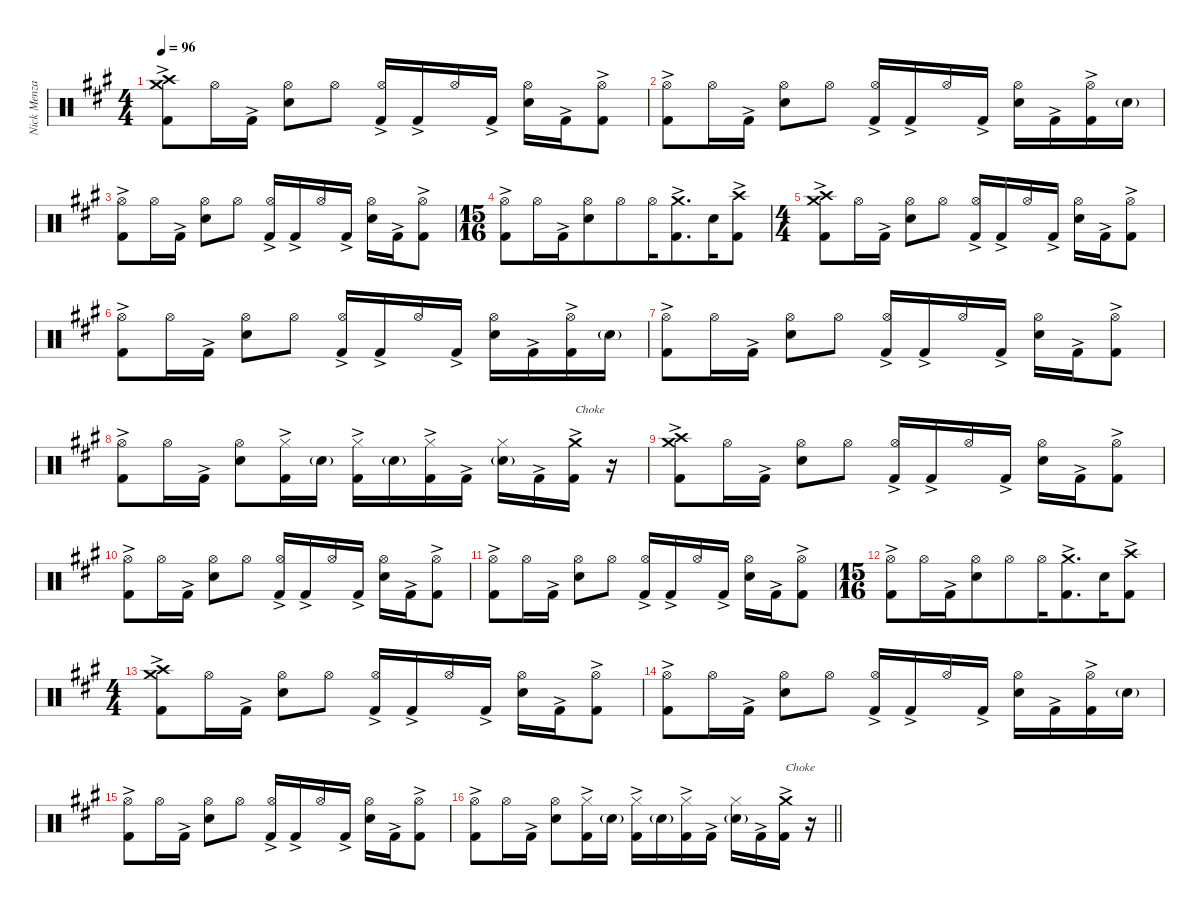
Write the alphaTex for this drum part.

\defaultSystemsLayout 4
\hideDynamics
\bracketExtendMode nobrackets
\firstSystemTrackNameMode fullname
\otherSystemsTrackNameOrientation horizontal
\track ("Nick Menza" "drm.") {instrument percussion}
\staff {score}
\articulation defaults
\ts (4 4)
\tempo 96
\clef neutral
\ks f#minor
("Crash high (hit)"{acc forcenatural} "Crash medium (hit)"{acc forcenatural} "Kick (hit) 2"{ac acc forcenatural}).8{dy f beam Down} "Hi-Hat (open)"{acc forcenatural}.16{beam Down} "Kick (hit) 2"{ac acc forcenatural}.16{dy ff beam Down} ("Hi-Hat (open)"{acc forcenatural} "Snare (hit) 2"{acc forcenatural}).8{dy f beam Down} "Hi-Hat (open)"{acc forcenatural}.8{beam Down} ("Hi-Hat (open)"{acc forcenatural} "Kick (hit) 2"{ac acc forcenatural}).16{beam Up} "Kick (hit) 2"{ac acc forcenatural}.16{dy ff beam Up} "Hi-Hat (open)"{acc forcenatural}.16{dy f beam Up} "Kick (hit) 2"{ac acc forcenatural}.16{dy ff beam Up} ("Hi-Hat (open)"{acc forcenatural} "Snare (hit) 2"{acc forcenatural}).16{dy f beam Down} "Kick (hit) 2"{ac acc forcenatural}.16{dy ff beam Down} ("Hi-Hat (open)"{acc forcenatural} "Kick (hit) 2"{ac acc forcenatural}).8{dy f beam Down} |
("Hi-Hat (open)"{acc forcenatural} "Kick (hit) 2"{ac acc forcenatural}).8{beam Down} "Hi-Hat (open)"{acc forcenatural}.16{beam Down} "Kick (hit) 2"{ac acc forcenatural}.16{dy ff beam Down} ("Hi-Hat (open)"{acc forcenatural} "Snare (hit) 2"{acc forcenatural}).8{dy f beam Down} "Hi-Hat (open)"{acc forcenatural}.8{beam Down} ("Hi-Hat (open)"{acc forcenatural} "Kick (hit) 2"{ac acc forcenatural}).16{beam Up} "Kick (hit) 2"{ac acc forcenatural}.16{dy ff beam Up} "Hi-Hat (open)"{acc forcenatural}.16{dy f beam Up} "Kick (hit) 2"{ac acc forcenatural}.16{dy ff beam Up} ("Hi-Hat (open)"{acc forcenatural} "Snare (hit) 2"{acc forcenatural}).16{dy f beam Down} "Kick (hit) 2"{ac acc forcenatural}.16{dy ff beam Down} ("Hi-Hat (open)"{acc forcenatural} "Kick (hit) 2"{ac acc forcenatural}).16{dy f beam Down} "Snare (hit) 2"{g acc forcenatural}.16{dy mf beam Down} |
("Hi-Hat (open)"{acc forcenatural} "Kick (hit) 2"{ac acc forcenatural}).8{dy f beam Down} "Hi-Hat (open)"{acc forcenatural}.16{beam Down} "Kick (hit) 2"{ac acc forcenatural}.16{dy ff beam Down} ("Hi-Hat (open)"{acc forcenatural} "Snare (hit) 2"{acc forcenatural}).8{dy f beam Down} "Hi-Hat (open)"{acc forcenatural}.8{beam Down} ("Hi-Hat (open)"{acc forcenatural} "Kick (hit) 2"{ac acc forcenatural}).16{beam Up} "Kick (hit) 2"{ac acc forcenatural}.16{dy ff beam Up} "Hi-Hat (open)"{acc forcenatural}.16{dy f beam Up} "Kick (hit) 2"{ac acc forcenatural}.16{dy ff beam Up} ("Hi-Hat (open)"{acc forcenatural} "Snare (hit) 2"{acc forcenatural}).16{dy f beam Down} "Kick (hit) 2"{ac acc forcenatural}.16{dy ff beam Down} ("Hi-Hat (open)"{acc forcenatural} "Kick (hit) 2"{ac acc forcenatural}).8{dy f beam Down} |
\ts (15 16)
\beaming (8 7)
("Hi-Hat (open)"{acc forcenatural} "Kick (hit) 2"{ac acc forcenatural}).8{beam Down} "Hi-Hat (open)"{acc forcenatural}.16{beam Down} "Kick (hit) 2"{ac acc forcenatural}.16{dy ff beam Down} ("Hi-Hat (open)"{acc forcenatural} "Snare (hit) 2"{acc forcenatural}).8{dy f beam Down} "Hi-Hat (open)"{acc forcenatural}.8{beam Down} "Hi-Hat (open)"{acc forcenatural}.16{beam Down} ("Crash medium (hit)"{acc forcenatural} "Kick (hit) 2"{ac acc forcenatural}).8{d beam Down} "Snare (hit) 2"{acc forcenatural}.16{beam Down} ("Crash high (hit)"{acc forcenatural} "Kick (hit) 2"{ac acc forcenatural}).8{beam Down} |
\ts (4 4)
\beaming (8 2 2 2 2)
("Crash high (hit)"{acc forcenatural} "Crash medium (hit)"{acc forcenatural} "Kick (hit) 2"{ac acc forcenatural}).8{beam Down} "Hi-Hat (open)"{acc forcenatural}.16{beam Down} "Kick (hit) 2"{ac acc forcenatural}.16{dy ff beam Down} ("Hi-Hat (open)"{acc forcenatural} "Snare (hit) 2"{acc forcenatural}).8{dy f beam Down} "Hi-Hat (open)"{acc forcenatural}.8{beam Down} ("Hi-Hat (open)"{acc forcenatural} "Kick (hit) 2"{ac acc forcenatural}).16{beam Up} "Kick (hit) 2"{ac acc forcenatural}.16{dy ff beam Up} "Hi-Hat (open)"{acc forcenatural}.16{dy f beam Up} "Kick (hit) 2"{ac acc forcenatural}.16{dy ff beam Up} ("Hi-Hat (open)"{acc forcenatural} "Snare (hit) 2"{acc forcenatural}).16{dy f beam Down} "Kick (hit) 2"{ac acc forcenatural}.16{dy ff beam Down} ("Hi-Hat (open)"{acc forcenatural} "Kick (hit) 2"{ac acc forcenatural}).8{dy f beam Down} |
("Hi-Hat (open)"{acc forcenatural} "Kick (hit) 2"{ac acc forcenatural}).8{beam Down} "Hi-Hat (open)"{acc forcenatural}.16{beam Down} "Kick (hit) 2"{ac acc forcenatural}.16{dy ff beam Down} ("Hi-Hat (open)"{acc forcenatural} "Snare (hit) 2"{acc forcenatural}).8{dy f beam Down} "Hi-Hat (open)"{acc forcenatural}.8{beam Down} ("Hi-Hat (open)"{acc forcenatural} "Kick (hit) 2"{ac acc forcenatural}).16{beam Up} "Kick (hit) 2"{ac acc forcenatural}.16{dy ff beam Up} "Hi-Hat (open)"{acc forcenatural}.16{dy f beam Up} "Kick (hit) 2"{ac acc forcenatural}.16{dy ff beam Up} ("Hi-Hat (open)"{acc forcenatural} "Snare (hit) 2"{acc forcenatural}).16{dy f beam Down} "Kick (hit) 2"{ac acc forcenatural}.16{dy ff beam Down} ("Hi-Hat (open)"{acc forcenatural} "Kick (hit) 2"{ac acc forcenatural}).16{dy f beam Down} "Snare (hit) 2"{g acc forcenatural}.16{dy mf beam Down} |
("Hi-Hat (open)"{acc forcenatural} "Kick (hit) 2"{ac acc forcenatural}).8{dy f beam Down} "Hi-Hat (open)"{acc forcenatural}.16{beam Down} "Kick (hit) 2"{ac acc forcenatural}.16{dy ff beam Down} ("Hi-Hat (open)"{acc forcenatural} "Snare (hit) 2"{acc forcenatural}).8{dy f beam Down} "Hi-Hat (open)"{acc forcenatural}.8{beam Down} ("Hi-Hat (open)"{acc forcenatural} "Kick (hit) 2"{ac acc forcenatural}).16{beam Up} "Kick (hit) 2"{ac acc forcenatural}.16{dy ff beam Up} "Hi-Hat (open)"{acc forcenatural}.16{dy f beam Up} "Kick (hit) 2"{ac acc forcenatural}.16{dy ff beam Up} ("Hi-Hat (open)"{acc forcenatural} "Snare (hit) 2"{acc forcenatural}).16{dy f beam Down} "Kick (hit) 2"{ac acc forcenatural}.16{dy ff beam Down} ("Hi-Hat (open)"{acc forcenatural} "Kick (hit) 2"{ac acc forcenatural}).8{dy f beam Down} |
("Hi-Hat (open)"{acc forcenatural} "Kick (hit) 2"{ac acc forcenatural}).8{beam Down} "Hi-Hat (open)"{acc forcenatural}.16{beam Down} "Kick (hit) 2"{ac acc forcenatural}.16{dy ff beam Down} ("Hi-Hat (open)"{acc forcenatural} "Snare (hit) 2"{acc forcenatural}).8{dy f beam Down} ("Hi-Hat (closed)"{acc forcenatural} "Kick (hit) 2"{ac acc forcenatural}).16{beam Down} "Snare (hit) 2"{g acc forcenatural}.16{dy mf beam Down} ("Hi-Hat (closed)"{acc forcenatural} "Kick (hit) 2"{ac acc forcenatural}).16{dy f beam Down} "Snare (hit) 2"{g acc forcenatural}.16{dy mf beam Down} ("Hi-Hat (closed)"{acc forcenatural} "Kick (hit) 2"{ac acc forcenatural}).16{dy f beam Down} "Kick (hit) 2"{ac acc forcenatural}.16{dy ff beam Down} ("Hi-Hat (closed)"{acc forcenatural} "Snare (hit) 2"{g acc forcenatural}).16{dy f beam Down} "Kick (hit) 2"{ac acc forcenatural}.16{dy ff beam Down} ("Crash medium (hit)"{acc forcenatural} "Kick (hit) 2"{ac acc forcenatural}).16{txt "Choke" dy f beam Down} r.16{beam Down} |
("Crash high (hit)"{acc forcenatural} "Crash medium (hit)"{acc forcenatural} "Kick (hit) 2"{ac acc forcenatural}).8{beam Down} "Hi-Hat (open)"{acc forcenatural}.16{beam Down} "Kick (hit) 2"{ac acc forcenatural}.16{dy ff beam Down} ("Hi-Hat (open)"{acc forcenatural} "Snare (hit) 2"{acc forcenatural}).8{dy f beam Down} "Hi-Hat (open)"{acc forcenatural}.8{beam Down} ("Hi-Hat (open)"{acc forcenatural} "Kick (hit) 2"{ac acc forcenatural}).16{beam Up} "Kick (hit) 2"{ac acc forcenatural}.16{dy ff beam Up} "Hi-Hat (open)"{acc forcenatural}.16{dy f beam Up} "Kick (hit) 2"{ac acc forcenatural}.16{dy ff beam Up} ("Hi-Hat (open)"{acc forcenatural} "Snare (hit) 2"{acc forcenatural}).16{dy f beam Down} "Kick (hit) 2"{ac acc forcenatural}.16{dy ff beam Down} ("Hi-Hat (open)"{acc forcenatural} "Kick (hit) 2"{ac acc forcenatural}).8{dy f beam Down} |
("Hi-Hat (open)"{acc forcenatural} "Kick (hit) 2"{ac acc forcenatural}).8{beam Down} "Hi-Hat (open)"{acc forcenatural}.16{beam Down} "Kick (hit) 2"{ac acc forcenatural}.16{dy ff beam Down} ("Hi-Hat (open)"{acc forcenatural} "Snare (hit) 2"{acc forcenatural}).8{dy f beam Down} "Hi-Hat (open)"{acc forcenatural}.8{beam Down} ("Hi-Hat (open)"{acc forcenatural} "Kick (hit) 2"{ac acc forcenatural}).16{beam Up} "Kick (hit) 2"{ac acc forcenatural}.16{dy ff beam Up} "Hi-Hat (open)"{acc forcenatural}.16{dy f beam Up} "Kick (hit) 2"{ac acc forcenatural}.16{dy ff beam Up} ("Hi-Hat (open)"{acc forcenatural} "Snare (hit) 2"{acc forcenatural}).16{dy f beam Down} "Kick (hit) 2"{ac acc forcenatural}.16{dy ff beam Down} ("Hi-Hat (open)"{acc forcenatural} "Kick (hit) 2"{ac acc forcenatural}).8{dy f beam Down} |
("Hi-Hat (open)"{acc forcenatural} "Kick (hit) 2"{ac acc forcenatural}).8{beam Down} "Hi-Hat (open)"{acc forcenatural}.16{beam Down} "Kick (hit) 2"{ac acc forcenatural}.16{dy ff beam Down} ("Hi-Hat (open)"{acc forcenatural} "Snare (hit) 2"{acc forcenatural}).8{dy f beam Down} "Hi-Hat (open)"{acc forcenatural}.8{beam Down} ("Hi-Hat (open)"{acc forcenatural} "Kick (hit) 2"{ac acc forcenatural}).16{beam Up} "Kick (hit) 2"{ac acc forcenatural}.16{dy ff beam Up} "Hi-Hat (open)"{acc forcenatural}.16{dy f beam Up} "Kick (hit) 2"{ac acc forcenatural}.16{dy ff beam Up} ("Hi-Hat (open)"{acc forcenatural} "Snare (hit) 2"{acc forcenatural}).16{dy f beam Down} "Kick (hit) 2"{ac acc forcenatural}.16{dy ff beam Down} ("Hi-Hat (open)"{acc forcenatural} "Kick (hit) 2"{ac acc forcenatural}).8{dy f beam Down} |
\ts (15 16)
\beaming (8 7)
("Hi-Hat (open)"{acc forcenatural} "Kick (hit) 2"{ac acc forcenatural}).8{beam Down} "Hi-Hat (open)"{acc forcenatural}.16{beam Down} "Kick (hit) 2"{ac acc forcenatural}.16{dy ff beam Down} ("Hi-Hat (open)"{acc forcenatural} "Snare (hit) 2"{acc forcenatural}).8{dy f beam Down} "Hi-Hat (open)"{acc forcenatural}.8{beam Down} "Hi-Hat (open)"{acc forcenatural}.16{beam Down} ("Crash medium (hit)"{acc forcenatural} "Kick (hit) 2"{ac acc forcenatural}).8{d beam Down} "Snare (hit) 2"{acc forcenatural}.16{beam Down} ("Crash high (hit)"{acc forcenatural} "Kick (hit) 2"{ac acc forcenatural}).8{beam Down} |
\ts (4 4)
\beaming (8 2 2 2 2)
("Crash high (hit)"{acc forcenatural} "Crash medium (hit)"{acc forcenatural} "Kick (hit) 2"{ac acc forcenatural}).8{beam Down} "Hi-Hat (open)"{acc forcenatural}.16{beam Down} "Kick (hit) 2"{ac acc forcenatural}.16{dy ff beam Down} ("Hi-Hat (open)"{acc forcenatural} "Snare (hit) 2"{acc forcenatural}).8{dy f beam Down} "Hi-Hat (open)"{acc forcenatural}.8{beam Down} ("Hi-Hat (open)"{acc forcenatural} "Kick (hit) 2"{ac acc forcenatural}).16{beam Up} "Kick (hit) 2"{ac acc forcenatural}.16{dy ff beam Up} "Hi-Hat (open)"{acc forcenatural}.16{dy f beam Up} "Kick (hit) 2"{ac acc forcenatural}.16{dy ff beam Up} ("Hi-Hat (open)"{acc forcenatural} "Snare (hit) 2"{acc forcenatural}).16{dy f beam Down} "Kick (hit) 2"{ac acc forcenatural}.16{dy ff beam Down} ("Hi-Hat (open)"{acc forcenatural} "Kick (hit) 2"{ac acc forcenatural}).8{dy f beam Down} |
("Hi-Hat (open)"{acc forcenatural} "Kick (hit) 2"{ac acc forcenatural}).8{beam Down} "Hi-Hat (open)"{acc forcenatural}.16{beam Down} "Kick (hit) 2"{ac acc forcenatural}.16{dy ff beam Down} ("Hi-Hat (open)"{acc forcenatural} "Snare (hit) 2"{acc forcenatural}).8{dy f beam Down} "Hi-Hat (open)"{acc forcenatural}.8{beam Down} ("Hi-Hat (open)"{acc forcenatural} "Kick (hit) 2"{ac acc forcenatural}).16{beam Up} "Kick (hit) 2"{ac acc forcenatural}.16{dy ff beam Up} "Hi-Hat (open)"{acc forcenatural}.16{dy f beam Up} "Kick (hit) 2"{ac acc forcenatural}.16{dy ff beam Up} ("Hi-Hat (open)"{acc forcenatural} "Snare (hit) 2"{acc forcenatural}).16{dy f beam Down} "Kick (hit) 2"{ac acc forcenatural}.16{dy ff beam Down} ("Hi-Hat (open)"{acc forcenatural} "Kick (hit) 2"{ac acc forcenatural}).16{dy f beam Down} "Snare (hit) 2"{g acc forcenatural}.16{dy mf beam Down} |
("Hi-Hat (open)"{acc forcenatural} "Kick (hit) 2"{ac acc forcenatural}).8{dy f beam Down} "Hi-Hat (open)"{acc forcenatural}.16{beam Down} "Kick (hit) 2"{ac acc forcenatural}.16{dy ff beam Down} ("Hi-Hat (open)"{acc forcenatural} "Snare (hit) 2"{acc forcenatural}).8{dy f beam Down} "Hi-Hat (open)"{acc forcenatural}.8{beam Down} ("Hi-Hat (open)"{acc forcenatural} "Kick (hit) 2"{ac acc forcenatural}).16{beam Up} "Kick (hit) 2"{ac acc forcenatural}.16{dy ff beam Up} "Hi-Hat (open)"{acc forcenatural}.16{dy f beam Up} "Kick (hit) 2"{ac acc forcenatural}.16{dy ff beam Up} ("Hi-Hat (open)"{acc forcenatural} "Snare (hit) 2"{acc forcenatural}).16{dy f beam Down} "Kick (hit) 2"{ac acc forcenatural}.16{dy ff beam Down} ("Hi-Hat (open)"{acc forcenatural} "Kick (hit) 2"{ac acc forcenatural}).8{dy f beam Down} |
\barLineRight lightlight
("Hi-Hat (open)"{acc forcenatural} "Kick (hit) 2"{ac acc forcenatural}).8{beam Down} "Hi-Hat (open)"{acc forcenatural}.16{beam Down} "Kick (hit) 2"{ac acc forcenatural}.16{dy ff beam Down} ("Hi-Hat (open)"{acc forcenatural} "Snare (hit) 2"{acc forcenatural}).8{dy f beam Down} ("Hi-Hat (closed)"{acc forcenatural} "Kick (hit) 2"{ac acc forcenatural}).16{beam Down} "Snare (hit) 2"{g acc forcenatural}.16{dy mf beam Down} ("Hi-Hat (closed)"{acc forcenatural} "Kick (hit) 2"{ac acc forcenatural}).16{dy f beam Down} "Snare (hit) 2"{g acc forcenatural}.16{dy mf beam Down} ("Hi-Hat (closed)"{acc forcenatural} "Kick (hit) 2"{ac acc forcenatural}).16{dy f beam Down} "Kick (hit) 2"{ac acc forcenatural}.16{dy ff beam Down} ("Hi-Hat (closed)"{acc forcenatural} "Snare (hit) 2"{g acc forcenatural}).16{dy f beam Down} "Kick (hit) 2"{ac acc forcenatural}.16{dy ff beam Down} ("Crash medium (hit)"{acc forcenatural} "Kick (hit) 2"{ac acc forcenatural}).16{txt "Choke" dy f beam Down} r.16{beam Down}
